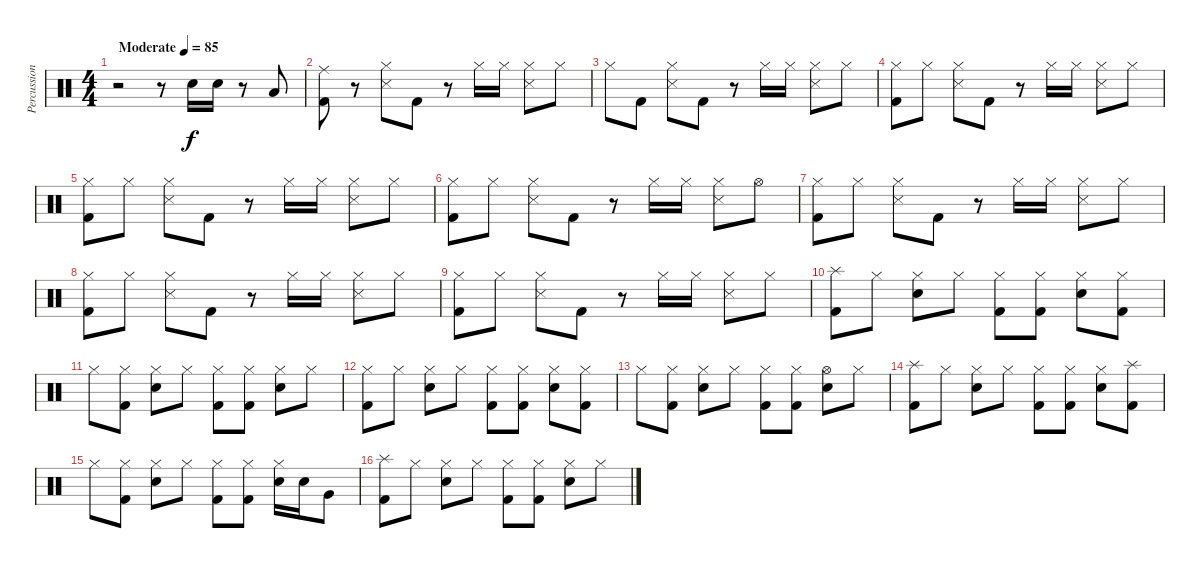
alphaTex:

\track ("Percussion" "Percussion") {instrument percussion}
\staff {score}
\articulation defaults
\ts (4 4)
\tempo (85 "Moderate")
\clef neutral
\ks c
r.2{dy f} r.8 "Electric Snare (hit)".16 "Electric Snare (hit)".16 r.8 "Low Tom (hit)".8 |
("Ride (middle)" "Kick (hit) 2").8 r.8 ("Hi-Hat (closed)" "Snare (side stick) 3").8 "Kick (hit) 2".8 r.8 "Hi-Hat (closed)".16 "Hi-Hat (closed)".16 ("Hi-Hat (closed)" "Snare (side stick) 3").8 "Hi-Hat (closed)".8 |
"Hi-Hat (closed)".8 "Kick (hit) 2".8 ("Hi-Hat (closed)" "Snare (side stick) 3").8 "Kick (hit) 2".8 r.8 "Hi-Hat (closed)".16 "Hi-Hat (closed)".16 ("Hi-Hat (closed)" "Snare (side stick) 3").8 "Hi-Hat (closed)".8 |
("Hi-Hat (closed)" "Kick (hit) 2").8 "Hi-Hat (closed)".8 ("Hi-Hat (closed)" "Snare (side stick) 3").8 "Kick (hit) 2".8 r.8 "Hi-Hat (closed)".16 "Hi-Hat (closed)".16 ("Hi-Hat (closed)" "Snare (side stick) 3").8 "Hi-Hat (closed)".8 |
("Hi-Hat (closed)" "Kick (hit) 2").8 "Hi-Hat (closed)".8 ("Hi-Hat (closed)" "Snare (side stick) 3").8 "Kick (hit) 2".8 r.8 "Hi-Hat (closed)".16 "Hi-Hat (closed)".16 ("Hi-Hat (closed)" "Snare (side stick) 3").8 "Hi-Hat (closed)".8 |
("Hi-Hat (closed)" "Kick (hit) 2").8 "Hi-Hat (closed)".8 ("Hi-Hat (closed)" "Snare (side stick) 3").8 "Kick (hit) 2".8 r.8 "Hi-Hat (closed)".16 "Hi-Hat (closed)".16 ("Hi-Hat (closed)" "Snare (side stick) 3").8 "Hi-Hat (open)".8 |
("Hi-Hat (closed)" "Kick (hit) 2").8 "Hi-Hat (closed)".8 ("Hi-Hat (closed)" "Snare (side stick) 3").8 "Kick (hit) 2".8 r.8 "Hi-Hat (closed)".16 "Hi-Hat (closed)".16 ("Hi-Hat (closed)" "Snare (side stick) 3").8 "Hi-Hat (closed)".8 |
("Hi-Hat (closed)" "Kick (hit) 2").8 "Hi-Hat (closed)".8 ("Hi-Hat (closed)" "Snare (side stick) 3").8 "Kick (hit) 2".8 r.8 "Hi-Hat (closed)".16 "Hi-Hat (closed)".16 ("Hi-Hat (closed)" "Snare (side stick) 3").8 "Hi-Hat (closed)".8 |
("Hi-Hat (closed)" "Kick (hit) 2").8 "Hi-Hat (closed)".8 ("Hi-Hat (closed)" "Snare (side stick) 3").8 "Kick (hit) 2".8 r.8 "Hi-Hat (closed)".16 "Hi-Hat (closed)".16 ("Hi-Hat (closed)" "Snare (side stick) 3").8 "Hi-Hat (closed)".8 |
("Splash (hit)" "Kick (hit) 2").8 "Hi-Hat (closed)".8 ("Hi-Hat (closed)" "Electric Snare (hit)").8 "Hi-Hat (closed)".8 ("Hi-Hat (closed)" "Kick (hit) 2").8 ("Hi-Hat (closed)" "Kick (hit) 2").8 ("Hi-Hat (closed)" "Electric Snare (hit)").8 ("Hi-Hat (closed)" "Kick (hit) 2").8 |
"Hi-Hat (closed)".8 ("Hi-Hat (closed)" "Kick (hit) 2").8 ("Hi-Hat (closed)" "Electric Snare (hit)").8 "Hi-Hat (closed)".8 ("Hi-Hat (closed)" "Kick (hit) 2").8 ("Hi-Hat (closed)" "Kick (hit) 2").8 ("Hi-Hat (closed)" "Electric Snare (hit)").8 "Hi-Hat (closed)".8 |
("Hi-Hat (closed)" "Kick (hit) 2").8 "Hi-Hat (closed)".8 ("Hi-Hat (closed)" "Electric Snare (hit)").8 "Hi-Hat (closed)".8 ("Hi-Hat (closed)" "Kick (hit) 2").8 ("Hi-Hat (closed)" "Kick (hit) 2").8 ("Hi-Hat (closed)" "Electric Snare (hit)").8 ("Hi-Hat (closed)" "Kick (hit) 2").8 |
"Hi-Hat (closed)".8 ("Hi-Hat (closed)" "Kick (hit) 2").8 ("Hi-Hat (closed)" "Electric Snare (hit)").8 "Hi-Hat (closed)".8 ("Hi-Hat (closed)" "Kick (hit) 2").8 ("Hi-Hat (closed)" "Kick (hit) 2").8 ("Hi-Hat (open)" "Electric Snare (hit)").8 "Hi-Hat (closed)".8 |
("Splash (hit)" "Kick (hit) 2").8 "Hi-Hat (closed)".8 ("Hi-Hat (closed)" "Electric Snare (hit)").8 "Hi-Hat (closed)".8 ("Hi-Hat (closed)" "Kick (hit) 2").8 ("Hi-Hat (closed)" "Kick (hit) 2").8 ("Hi-Hat (closed)" "Electric Snare (hit)").8 ("Splash (hit)" "Kick (hit) 2").8 |
"Hi-Hat (closed)".8 ("Hi-Hat (closed)" "Kick (hit) 2").8 ("Hi-Hat (closed)" "Electric Snare (hit)").8 "Hi-Hat (closed)".8 ("Hi-Hat (closed)" "Kick (hit) 2").8 ("Hi-Hat (closed)" "Kick (hit) 2").8 ("Hi-Hat (closed)" "Electric Snare (hit)").16 "Electric Snare (hit)".16 "Very Low Tom (hit)".8 |
("Splash (hit)" "Kick (hit) 2").8 "Hi-Hat (closed)".8 ("Hi-Hat (closed)" "Electric Snare (hit)").8 "Hi-Hat (closed)".8 ("Hi-Hat (closed)" "Kick (hit) 2").8 ("Hi-Hat (closed)" "Kick (hit) 2").8 ("Hi-Hat (closed)" "Electric Snare (hit)").8 "Hi-Hat (closed)".8
